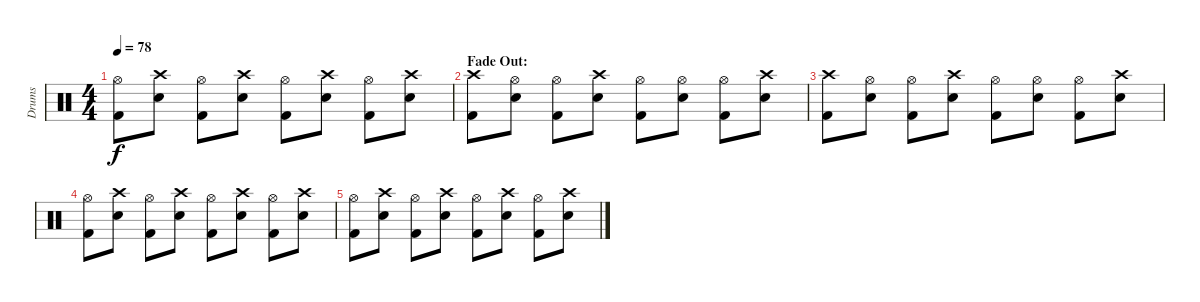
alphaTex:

\track ("Drums" "Drums") {instrument percussion}
\staff {score}
\articulation defaults
\ts (4 4)
\tempo 78
\clef neutral
\ks c
("Hi-Hat (open)" "Kick (hit) 2").8{dy f} ("Crash high (hit)" "Snare (hit) 2").8 ("Hi-Hat (open)" "Kick (hit) 2").8 ("Crash high (hit)" "Snare (hit) 2").8 ("Hi-Hat (open)" "Kick (hit) 2").8 ("Crash high (hit)" "Snare (hit) 2").8 ("Hi-Hat (open)" "Kick (hit) 2").8 ("Crash high (hit)" "Snare (hit) 2").8 |
\section ("" "Fade Out:")
("Crash high (hit)" "Kick (hit) 2").8 ("Hi-Hat (open)" "Snare (hit) 2").8 ("Hi-Hat (open)" "Kick (hit) 2").8 ("Crash high (hit)" "Snare (hit) 2").8 ("Hi-Hat (open)" "Kick (hit) 2").8 ("Hi-Hat (open)" "Snare (hit) 2").8 ("Hi-Hat (open)" "Kick (hit) 2").8 ("Crash high (hit)" "Snare (hit) 2").8 |
("Crash high (hit)" "Kick (hit) 2").8 ("Hi-Hat (open)" "Snare (hit) 2").8 ("Hi-Hat (open)" "Kick (hit) 2").8 ("Crash high (hit)" "Snare (hit) 2").8 ("Hi-Hat (open)" "Kick (hit) 2").8 ("Hi-Hat (open)" "Snare (hit) 2").8 ("Hi-Hat (open)" "Kick (hit) 2").8 ("Crash high (hit)" "Snare (hit) 2").8 |
("Hi-Hat (open)" "Kick (hit) 2").8 ("Crash high (hit)" "Snare (hit) 2").8 ("Hi-Hat (open)" "Kick (hit) 2").8 ("Crash high (hit)" "Snare (hit) 2").8 ("Hi-Hat (open)" "Kick (hit) 2").8 ("Crash high (hit)" "Snare (hit) 2").8 ("Hi-Hat (open)" "Kick (hit) 2").8 ("Crash high (hit)" "Snare (hit) 2").8 |
("Hi-Hat (open)" "Kick (hit) 2").8 ("Crash high (hit)" "Snare (hit) 2").8 ("Hi-Hat (open)" "Kick (hit) 2").8 ("Crash high (hit)" "Snare (hit) 2").8 ("Hi-Hat (open)" "Kick (hit) 2").8 ("Crash high (hit)" "Snare (hit) 2").8 ("Hi-Hat (open)" "Kick (hit) 2").8 ("Crash high (hit)" "Snare (hit) 2").8
